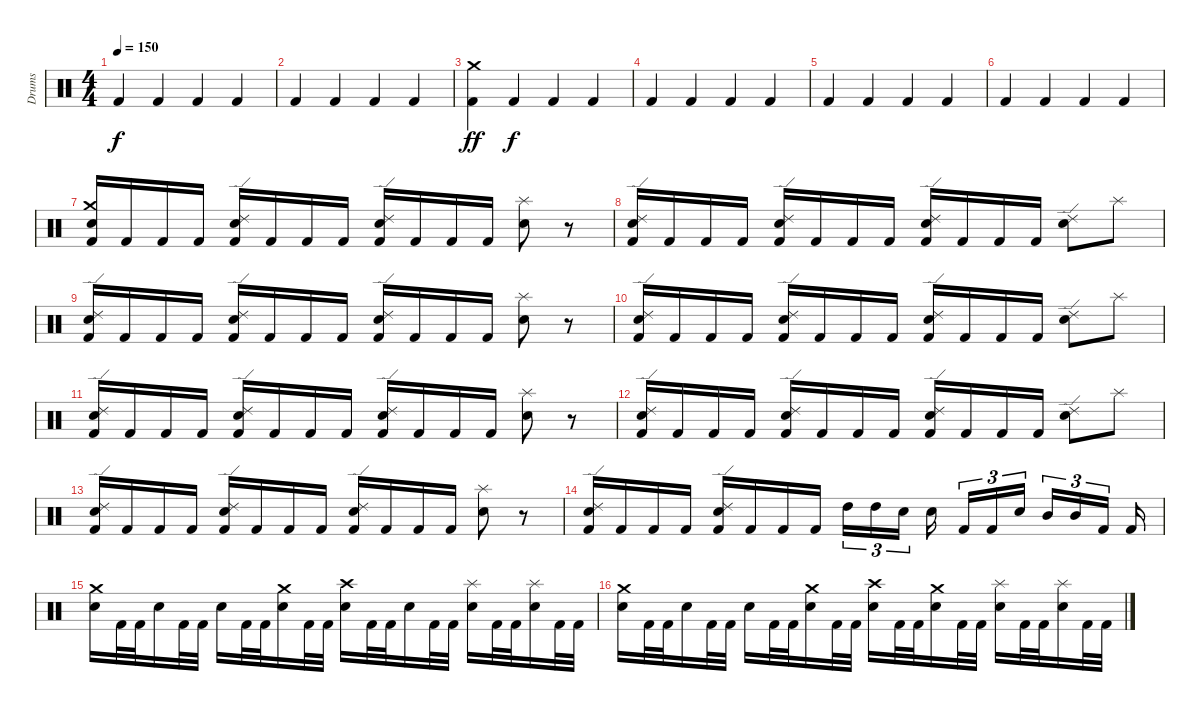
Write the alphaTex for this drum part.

\track ("Drums" "Drums") {instrument percussion}
\staff {score}
\articulation defaults
\ts (4 4)
\tempo 150
\clef neutral
\ks c "Kick (hit) 2".4{dy f} "Kick (hit) 2".4 "Kick (hit) 2".4 "Kick (hit) 2".4
|
"Kick (hit) 2".4 "Kick (hit) 2".4 "Kick (hit) 2".4 "Kick (hit) 2".4 |
("Crash medium (hit)" "Kick (hit) 2").4{dy ff} "Kick (hit) 2".4{dy f} "Kick (hit) 2".4 "Kick (hit) 2".4 |
"Kick (hit) 2".4 "Kick (hit) 2".4 "Kick (hit) 2".4 "Kick (hit) 2".4 |
"Kick (hit) 2".4 "Kick (hit) 2".4 "Kick (hit) 2".4 "Kick (hit) 2".4 |
"Kick (hit) 2".4 "Kick (hit) 2".4 "Kick (hit) 2".4 "Kick (hit) 2".4 |
("Crash medium (hit)" "Electric Snare (hit)" "Kick (hit) 2").16 "Kick (hit) 2".16 "Kick (hit) 2".16 "Kick (hit) 2".16 ("Ride (edge) 2" "Electric Snare (hit)" "Kick (hit) 2").16 "Kick (hit) 2".16 "Kick (hit) 2".16 "Kick (hit) 2".16 ("Ride (edge) 2" "Electric Snare (hit)" "Kick (hit) 2").16 "Kick (hit) 2".16 "Kick (hit) 2".16 "Kick (hit) 2".16 ("Splash (hit)" "Electric Snare (hit)").8 r.8 |
("Ride (edge) 2" "Electric Snare (hit)" "Kick (hit) 2").16 "Kick (hit) 2".16 "Kick (hit) 2".16 "Kick (hit) 2".16 ("Ride (edge) 2" "Electric Snare (hit)" "Kick (hit) 2").16 "Kick (hit) 2".16 "Kick (hit) 2".16 "Kick (hit) 2".16 ("Ride (edge) 2" "Electric Snare (hit)" "Kick (hit) 2").16 "Kick (hit) 2".16 "Kick (hit) 2".16 "Kick (hit) 2".16 ("Ride (edge) 2" "Electric Snare (hit)").8 "Splash (hit)".8 |
("Ride (edge) 2" "Electric Snare (hit)" "Kick (hit) 2").16 "Kick (hit) 2".16 "Kick (hit) 2".16 "Kick (hit) 2".16 ("Ride (edge) 2" "Electric Snare (hit)" "Kick (hit) 2").16 "Kick (hit) 2".16 "Kick (hit) 2".16 "Kick (hit) 2".16 ("Ride (edge) 2" "Electric Snare (hit)" "Kick (hit) 2").16 "Kick (hit) 2".16 "Kick (hit) 2".16 "Kick (hit) 2".16 ("Splash (hit)" "Electric Snare (hit)").8 r.8 |
("Ride (edge) 2" "Electric Snare (hit)" "Kick (hit) 2").16 "Kick (hit) 2".16 "Kick (hit) 2".16 "Kick (hit) 2".16 ("Ride (edge) 2" "Electric Snare (hit)" "Kick (hit) 2").16 "Kick (hit) 2".16 "Kick (hit) 2".16 "Kick (hit) 2".16 ("Ride (edge) 2" "Electric Snare (hit)" "Kick (hit) 2").16 "Kick (hit) 2".16 "Kick (hit) 2".16 "Kick (hit) 2".16 ("Ride (edge) 2" "Electric Snare (hit)").8 "Splash (hit)".8 |
("Ride (edge) 2" "Electric Snare (hit)" "Kick (hit) 2").16 "Kick (hit) 2".16 "Kick (hit) 2".16 "Kick (hit) 2".16 ("Ride (edge) 2" "Electric Snare (hit)" "Kick (hit) 2").16 "Kick (hit) 2".16 "Kick (hit) 2".16 "Kick (hit) 2".16 ("Ride (edge) 2" "Electric Snare (hit)" "Kick (hit) 2").16 "Kick (hit) 2".16 "Kick (hit) 2".16 "Kick (hit) 2".16 ("Splash (hit)" "Electric Snare (hit)").8 r.8 |
("Ride (edge) 2" "Electric Snare (hit)" "Kick (hit) 2").16 "Kick (hit) 2".16 "Kick (hit) 2".16 "Kick (hit) 2".16 ("Ride (edge) 2" "Electric Snare (hit)" "Kick (hit) 2").16 "Kick (hit) 2".16 "Kick (hit) 2".16 "Kick (hit) 2".16 ("Ride (edge) 2" "Electric Snare (hit)" "Kick (hit) 2").16 "Kick (hit) 2".16 "Kick (hit) 2".16 "Kick (hit) 2".16 ("Ride (edge) 2" "Electric Snare (hit)").8 "Splash (hit)".8 |
("Ride (edge) 2" "Electric Snare (hit)" "Kick (hit) 2").16 "Kick (hit) 2".16 "Kick (hit) 2".16 "Kick (hit) 2".16 ("Ride (edge) 2" "Electric Snare (hit)" "Kick (hit) 2").16 "Kick (hit) 2".16 "Kick (hit) 2".16 "Kick (hit) 2".16 ("Ride (edge) 2" "Electric Snare (hit)" "Kick (hit) 2").16 "Kick (hit) 2".16 "Kick (hit) 2".16 "Kick (hit) 2".16 ("Splash (hit)" "Electric Snare (hit)").8 r.8 |
("Ride (edge) 2" "Electric Snare (hit)" "Kick (hit) 2").16 "Kick (hit) 2".16 "Kick (hit) 2".16 "Kick (hit) 2".16 ("Ride (edge) 2" "Electric Snare (hit)" "Kick (hit) 2").16 "Kick (hit) 2".16 "Kick (hit) 2".16 "Kick (hit) 2".16 "High Tom (hit)".16{tu (3 2)} "High Tom (hit)".16{tu (3 2)} "Electric Snare (hit)".16{tu (3 2)} "Electric Snare (hit)".16 "Kick (hit) 2".16{tu (3 2)} "Kick (hit) 2".16{tu (3 2)} "Electric Snare (hit)".16{tu (3 2)} "Mid Tom (hit)".16{tu (3 2)} "Mid Tom (hit)".16{tu (3 2)} "Kick (hit) 2".16{tu (3 2)} "Kick (hit) 2".16 |
("Crash medium (hit)" "Electric Snare (hit)").16 "Kick (hit) 2".32 "Kick (hit) 2".32 "Electric Snare (hit)".16 "Kick (hit) 2".32 "Kick (hit) 2".32 "Electric Snare (hit)".16 "Kick (hit) 2".32 "Kick (hit) 2".32 ("Crash medium (hit)" "Electric Snare (hit)").16 "Kick (hit) 2".32 "Kick (hit) 2".32 ("Crash high (hit)" "Electric Snare (hit)").16 "Kick (hit) 2".32 "Kick (hit) 2".32 "Electric Snare (hit)".16 "Kick (hit) 2".32 "Kick (hit) 2".32 ("Splash (hit)" "Electric Snare (hit)").16 "Kick (hit) 2".32 "Kick (hit) 2".32 ("Splash (hit)" "Electric Snare (hit)").16 "Kick (hit) 2".32 "Kick (hit) 2".32 |
("Crash medium (hit)" "Electric Snare (hit)").16 "Kick (hit) 2".32 "Kick (hit) 2".32 "Electric Snare (hit)".16 "Kick (hit) 2".32 "Kick (hit) 2".32 "Electric Snare (hit)".16 "Kick (hit) 2".32 "Kick (hit) 2".32 ("Crash medium (hit)" "Electric Snare (hit)").16 "Kick (hit) 2".32 "Kick (hit) 2".32 ("Crash high (hit)" "Electric Snare (hit)").16 "Kick (hit) 2".32 "Kick (hit) 2".32 ("Crash medium (hit)" "Electric Snare (hit)").16 "Kick (hit) 2".32 "Kick (hit) 2".32 ("Splash (hit)" "Electric Snare (hit)").16 "Kick (hit) 2".32 "Kick (hit) 2".32 ("Splash (hit)" "Electric Snare (hit)").16 "Kick (hit) 2".32 "Kick (hit) 2".32
